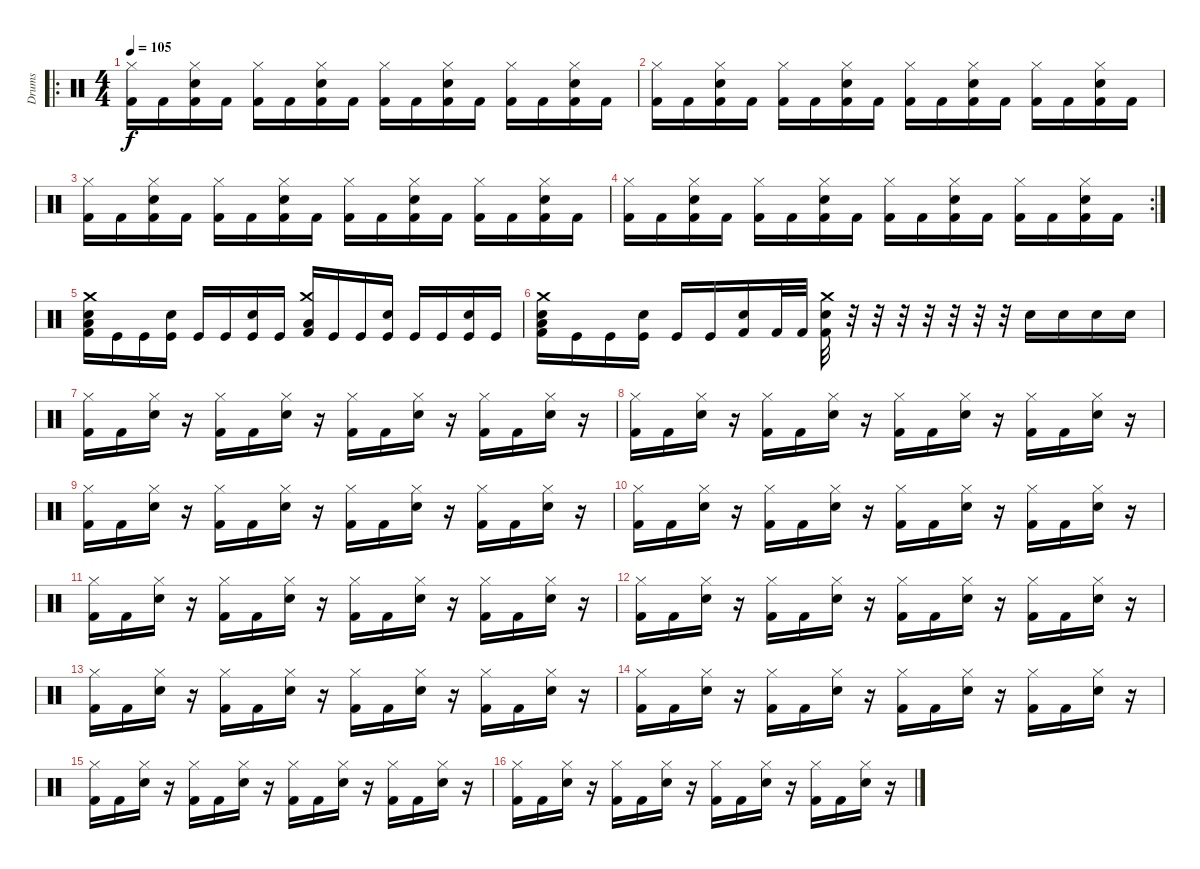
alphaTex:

\track ("Drums" "Drums") {instrument percussion}
\staff {score}
\articulation defaults
\ro
\ts (4 4)
\tempo 105
\clef neutral
\ks c
("Kick (hit) 2" "Hi-Hat (closed)").16{dy f} "Kick (hit) 2".16 ("Kick (hit) 2" "Snare (hit) 2" "Hi-Hat (closed)").16 "Kick (hit) 2".16 ("Kick (hit) 2" "Hi-Hat (closed)").16 "Kick (hit) 2".16 ("Kick (hit) 2" "Snare (hit) 2" "Hi-Hat (closed)").16 "Kick (hit) 2".16 ("Kick (hit) 2" "Hi-Hat (closed)").16 "Kick (hit) 2".16 ("Kick (hit) 2" "Snare (hit) 2" "Hi-Hat (closed)").16 "Kick (hit) 2".16 ("Kick (hit) 2" "Hi-Hat (closed)").16 "Kick (hit) 2".16 ("Kick (hit) 2" "Snare (hit) 2" "Hi-Hat (closed)").16 "Kick (hit) 2".16 |
("Kick (hit) 2" "Hi-Hat (closed)").16 "Kick (hit) 2".16 ("Kick (hit) 2" "Snare (hit) 2" "Hi-Hat (closed)").16 "Kick (hit) 2".16 ("Kick (hit) 2" "Hi-Hat (closed)").16 "Kick (hit) 2".16 ("Kick (hit) 2" "Snare (hit) 2" "Hi-Hat (closed)").16 "Kick (hit) 2".16 ("Kick (hit) 2" "Hi-Hat (closed)").16 "Kick (hit) 2".16 ("Kick (hit) 2" "Snare (hit) 2" "Hi-Hat (closed)").16 "Kick (hit) 2".16 ("Kick (hit) 2" "Hi-Hat (closed)").16 "Kick (hit) 2".16 ("Kick (hit) 2" "Snare (hit) 2" "Hi-Hat (closed)").16 "Kick (hit) 2".16 |
("Kick (hit) 2" "Hi-Hat (closed)").16 "Kick (hit) 2".16 ("Kick (hit) 2" "Snare (hit) 2" "Hi-Hat (closed)").16 "Kick (hit) 2".16 ("Kick (hit) 2" "Hi-Hat (closed)").16 "Kick (hit) 2".16 ("Kick (hit) 2" "Snare (hit) 2" "Hi-Hat (closed)").16 "Kick (hit) 2".16 ("Kick (hit) 2" "Hi-Hat (closed)").16 "Kick (hit) 2".16 ("Kick (hit) 2" "Snare (hit) 2" "Hi-Hat (closed)").16 "Kick (hit) 2".16 ("Kick (hit) 2" "Hi-Hat (closed)").16 "Kick (hit) 2".16 ("Kick (hit) 2" "Snare (hit) 2" "Hi-Hat (closed)").16 "Kick (hit) 2".16 |
\rc 2
("Kick (hit) 2" "Hi-Hat (closed)").16 "Kick (hit) 2".16 ("Kick (hit) 2" "Snare (hit) 2" "Hi-Hat (closed)").16 "Kick (hit) 2".16 ("Kick (hit) 2" "Hi-Hat (closed)").16 "Kick (hit) 2".16 ("Kick (hit) 2" "Snare (hit) 2" "Hi-Hat (closed)").16 "Kick (hit) 2".16 ("Kick (hit) 2" "Hi-Hat (closed)").16 "Kick (hit) 2".16 ("Kick (hit) 2" "Snare (hit) 2" "Hi-Hat (closed)").16 "Kick (hit) 2".16 ("Kick (hit) 2" "Hi-Hat (closed)").16 "Kick (hit) 2".16 ("Kick (hit) 2" "Snare (hit) 2" "Hi-Hat (closed)").16 "Kick (hit) 2".16 |
("Kick (hit) 2" "Low Floor Tom (hit)" "Snare (hit) 2" "Crash medium (hit)").16 "Kick (hit)".16 "Kick (hit)".16 ("Kick (hit)" "Snare (hit) 2").16 "Kick (hit)".16 "Kick (hit)".16 ("Kick (hit)" "Snare (hit) 2").16 "Kick (hit)".16 ("Kick (hit) 2" "Low Tom (hit)" "Crash medium (hit)").16 "Kick (hit)".16 "Kick (hit)".16 ("Kick (hit)" "Snare (hit) 2").16 "Kick (hit)".16 "Kick (hit)".16 ("Kick (hit)" "Snare (hit) 2").16 "Kick (hit)".16 |
("Kick (hit) 2" "Low Floor Tom (hit)" "Snare (hit) 2" "Crash medium (hit)").16 "Kick (hit)".16 "Kick (hit)".16 ("Kick (hit)" "Snare (hit) 2").16 "Kick (hit)".16 "Kick (hit)".16 ("Kick (hit) 2" "Snare (hit) 2").16 "Kick (hit) 2".32 "Kick (hit) 2".32 ("Kick (hit) 2" "Crash medium (hit)" "Snare (hit) 2").32 r.32 r.32 r.32 r.32 r.32 r.32 r.32 "Snare (hit) 2".16 "Snare (hit) 2".16 "Snare (hit) 2".16 "Snare (hit) 2".16 |
("Kick (hit) 2" "Hi-Hat (closed)").16 "Kick (hit) 2".16 ("Snare (hit) 2" "Hi-Hat (closed)").16 r.16 ("Kick (hit) 2" "Hi-Hat (closed)").16 "Kick (hit) 2".16 ("Snare (hit) 2" "Hi-Hat (closed)").16 r.16 ("Kick (hit) 2" "Hi-Hat (closed)").16 "Kick (hit) 2".16 ("Snare (hit) 2" "Hi-Hat (closed)").16 r.16 ("Kick (hit) 2" "Hi-Hat (closed)").16 "Kick (hit) 2".16 ("Snare (hit) 2" "Hi-Hat (closed)").16 r.16 |
("Kick (hit) 2" "Hi-Hat (closed)").16 "Kick (hit) 2".16 ("Snare (hit) 2" "Hi-Hat (closed)").16 r.16 ("Kick (hit) 2" "Hi-Hat (closed)").16 "Kick (hit) 2".16 ("Snare (hit) 2" "Hi-Hat (closed)").16 r.16 ("Kick (hit) 2" "Hi-Hat (closed)").16 "Kick (hit) 2".16 ("Snare (hit) 2" "Hi-Hat (closed)").16 r.16 ("Kick (hit) 2" "Hi-Hat (closed)").16 "Kick (hit) 2".16 ("Snare (hit) 2" "Hi-Hat (closed)").16 r.16 |
("Kick (hit) 2" "Hi-Hat (closed)").16 "Kick (hit) 2".16 ("Snare (hit) 2" "Hi-Hat (closed)").16 r.16 ("Kick (hit) 2" "Hi-Hat (closed)").16 "Kick (hit) 2".16 ("Snare (hit) 2" "Hi-Hat (closed)").16 r.16 ("Kick (hit) 2" "Hi-Hat (closed)").16 "Kick (hit) 2".16 ("Snare (hit) 2" "Hi-Hat (closed)").16 r.16 ("Kick (hit) 2" "Hi-Hat (closed)").16 "Kick (hit) 2".16 ("Snare (hit) 2" "Hi-Hat (closed)").16 r.16 |
("Kick (hit) 2" "Hi-Hat (closed)").16 "Kick (hit) 2".16 ("Snare (hit) 2" "Hi-Hat (closed)").16 r.16 ("Kick (hit) 2" "Hi-Hat (closed)").16 "Kick (hit) 2".16 ("Snare (hit) 2" "Hi-Hat (closed)").16 r.16 ("Kick (hit) 2" "Hi-Hat (closed)").16 "Kick (hit) 2".16 ("Snare (hit) 2" "Hi-Hat (closed)").16 r.16 ("Kick (hit) 2" "Hi-Hat (closed)").16 "Kick (hit) 2".16 ("Snare (hit) 2" "Hi-Hat (closed)").16 r.16 |
("Kick (hit) 2" "Hi-Hat (closed)").16 "Kick (hit) 2".16 ("Snare (hit) 2" "Hi-Hat (closed)").16 r.16 ("Kick (hit) 2" "Hi-Hat (closed)").16 "Kick (hit) 2".16 ("Snare (hit) 2" "Hi-Hat (closed)").16 r.16 ("Kick (hit) 2" "Hi-Hat (closed)").16 "Kick (hit) 2".16 ("Snare (hit) 2" "Hi-Hat (closed)").16 r.16 ("Kick (hit) 2" "Hi-Hat (closed)").16 "Kick (hit) 2".16 ("Snare (hit) 2" "Hi-Hat (closed)").16 r.16 |
("Kick (hit) 2" "Hi-Hat (closed)").16 "Kick (hit) 2".16 ("Snare (hit) 2" "Hi-Hat (closed)").16 r.16 ("Kick (hit) 2" "Hi-Hat (closed)").16 "Kick (hit) 2".16 ("Snare (hit) 2" "Hi-Hat (closed)").16 r.16 ("Kick (hit) 2" "Hi-Hat (closed)").16 "Kick (hit) 2".16 ("Snare (hit) 2" "Hi-Hat (closed)").16 r.16 ("Kick (hit) 2" "Hi-Hat (closed)").16 "Kick (hit) 2".16 ("Snare (hit) 2" "Hi-Hat (closed)").16 r.16 |
("Kick (hit) 2" "Hi-Hat (closed)").16 "Kick (hit) 2".16 ("Snare (hit) 2" "Hi-Hat (closed)").16 r.16 ("Kick (hit) 2" "Hi-Hat (closed)").16 "Kick (hit) 2".16 ("Snare (hit) 2" "Hi-Hat (closed)").16 r.16 ("Kick (hit) 2" "Hi-Hat (closed)").16 "Kick (hit) 2".16 ("Snare (hit) 2" "Hi-Hat (closed)").16 r.16 ("Kick (hit) 2" "Hi-Hat (closed)").16 "Kick (hit) 2".16 ("Snare (hit) 2" "Hi-Hat (closed)").16 r.16 |
("Kick (hit) 2" "Hi-Hat (closed)").16 "Kick (hit) 2".16 ("Snare (hit) 2" "Hi-Hat (closed)").16 r.16 ("Kick (hit) 2" "Hi-Hat (closed)").16 "Kick (hit) 2".16 ("Snare (hit) 2" "Hi-Hat (closed)").16 r.16 ("Kick (hit) 2" "Hi-Hat (closed)").16 "Kick (hit) 2".16 ("Snare (hit) 2" "Hi-Hat (closed)").16 r.16 ("Kick (hit) 2" "Hi-Hat (closed)").16 "Kick (hit) 2".16 ("Snare (hit) 2" "Hi-Hat (closed)").16 r.16 |
("Kick (hit) 2" "Hi-Hat (closed)").16 "Kick (hit) 2".16 ("Snare (hit) 2" "Hi-Hat (closed)").16 r.16 ("Kick (hit) 2" "Hi-Hat (closed)").16 "Kick (hit) 2".16 ("Snare (hit) 2" "Hi-Hat (closed)").16 r.16 ("Kick (hit) 2" "Hi-Hat (closed)").16 "Kick (hit) 2".16 ("Snare (hit) 2" "Hi-Hat (closed)").16 r.16 ("Kick (hit) 2" "Hi-Hat (closed)").16 "Kick (hit) 2".16 ("Snare (hit) 2" "Hi-Hat (closed)").16 r.16 |
("Kick (hit) 2" "Hi-Hat (closed)").16 "Kick (hit) 2".16 ("Snare (hit) 2" "Hi-Hat (closed)").16 r.16 ("Kick (hit) 2" "Hi-Hat (closed)").16 "Kick (hit) 2".16 ("Snare (hit) 2" "Hi-Hat (closed)").16 r.16 ("Kick (hit) 2" "Hi-Hat (closed)").16 "Kick (hit) 2".16 ("Snare (hit) 2" "Hi-Hat (closed)").16 r.16 ("Kick (hit) 2" "Hi-Hat (closed)").16 "Kick (hit) 2".16 ("Snare (hit) 2" "Hi-Hat (closed)").16 r.16
